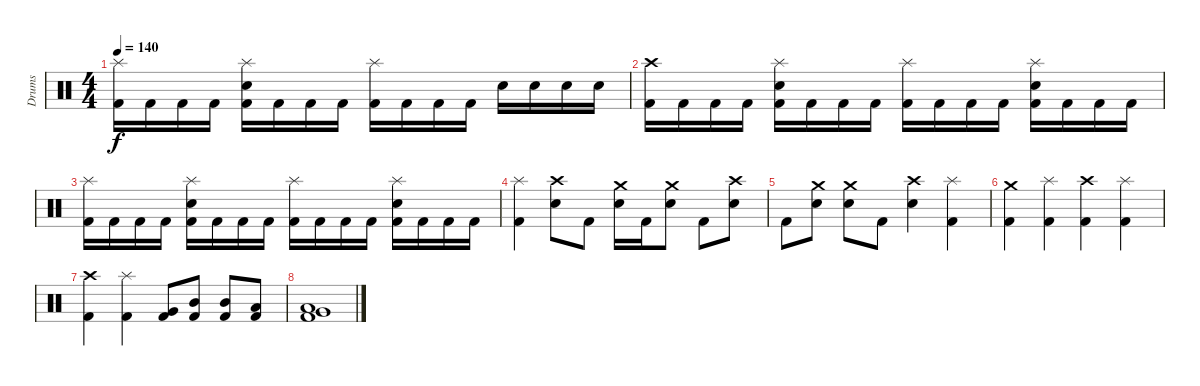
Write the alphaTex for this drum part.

\track ("Drums" "Drums") {instrument percussion}
\staff {score}
\articulation defaults
\ts (4 4)
\tempo 140
\clef neutral
\ks c
("Splash (hit)" "Kick (hit) 2").16{dy f} "Kick (hit) 2".16 "Kick (hit) 2".16 "Kick (hit) 2".16 ("Splash (hit)" "Electric Snare (hit)" "Kick (hit) 2").16 "Kick (hit) 2".16 "Kick (hit) 2".16 "Kick (hit) 2".16 ("Splash (hit)" "Kick (hit) 2").16 "Kick (hit) 2".16 "Kick (hit) 2".16 "Kick (hit) 2".16 "Electric Snare (hit)".16 "Electric Snare (hit)".16 "Electric Snare (hit)".16 "Electric Snare (hit)".16 |
("Crash high (hit)" "Kick (hit) 2").16 "Kick (hit) 2".16 "Kick (hit) 2".16 "Kick (hit) 2".16 ("Splash (hit)" "Electric Snare (hit)" "Kick (hit) 2").16 "Kick (hit) 2".16 "Kick (hit) 2".16 "Kick (hit) 2".16 ("Splash (hit)" "Kick (hit) 2").16 "Kick (hit) 2".16 "Kick (hit) 2".16 "Kick (hit) 2".16 ("Splash (hit)" "Electric Snare (hit)" "Kick (hit) 2").16 "Kick (hit) 2".16 "Kick (hit) 2".16 "Kick (hit) 2".16 |
("Splash (hit)" "Kick (hit) 2").16 "Kick (hit) 2".16 "Kick (hit) 2".16 "Kick (hit) 2".16 ("Splash (hit)" "Electric Snare (hit)" "Kick (hit) 2").16 "Kick (hit) 2".16 "Kick (hit) 2".16 "Kick (hit) 2".16 ("Splash (hit)" "Kick (hit) 2").16 "Kick (hit) 2".16 "Kick (hit) 2".16 "Kick (hit) 2".16 ("Splash (hit)" "Electric Snare (hit)" "Kick (hit) 2").16 "Kick (hit) 2".16 "Kick (hit) 2".16 "Kick (hit) 2".16 |
("Splash (hit)" "Kick (hit) 2").4 ("Crash high (hit)" "Electric Snare (hit)").8 "Kick (hit) 2".8 ("Crash medium (hit)" "Electric Snare (hit)").16 "Kick (hit) 2".16 ("Crash medium (hit)" "Electric Snare (hit)").8 "Kick (hit) 2".8 ("Crash high (hit)" "Electric Snare (hit)").8 |
"Kick (hit) 2".8 ("Crash medium (hit)" "Electric Snare (hit)").8 ("Crash medium (hit)" "Electric Snare (hit)").8 "Kick (hit) 2".8 ("Crash high (hit)" "Electric Snare (hit)").4 ("Splash (hit)" "Kick (hit) 2").4 |
("Crash medium (hit)" "Kick (hit) 2").4 ("Splash (hit)" "Kick (hit) 2").4 ("Crash high (hit)" "Kick (hit) 2").4 ("Splash (hit)" "Kick (hit) 2").4 |
("Crash high (hit)" "Kick (hit) 2").4 ("Splash (hit)" "Kick (hit) 2").4 ("Very Low Tom (hit)" "Kick (hit) 2").8 ("Mid Tom (hit)" "Kick (hit) 2").8 ("Mid Tom (hit)" "Kick (hit) 2").8 ("Low Floor Tom (hit)" "Kick (hit) 2").8 |
("Low Floor Tom (hit)" "Very Low Tom (hit)" "Kick (hit) 2").1
